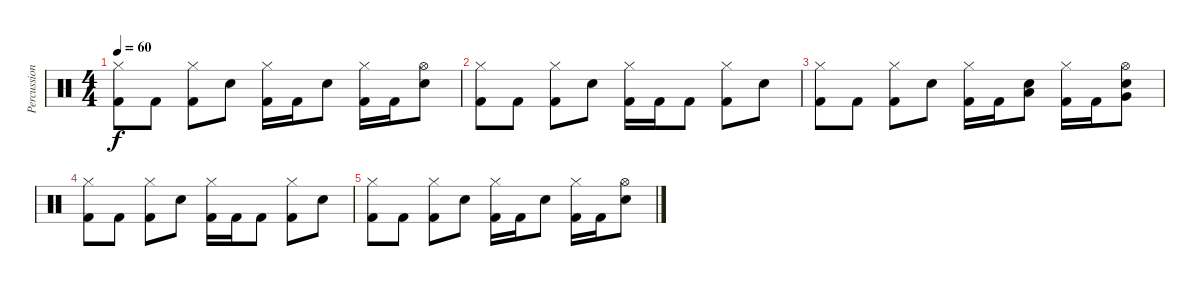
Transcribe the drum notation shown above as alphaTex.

\track ("Percussion" "Percussion") {instrument percussion}
\staff {score}
\articulation defaults
\ts (4 4)
\tempo 60
\clef neutral
\ks c
("Hi-Hat (closed)" "Kick (hit) 2").8{dy f} "Kick (hit) 2".8 ("Hi-Hat (closed)" "Kick (hit) 2").8 "Snare (hit) 2".8 ("Hi-Hat (closed)" "Kick (hit) 2").16 "Kick (hit) 2".16 "Snare (hit) 2".8 ("Hi-Hat (closed)" "Kick (hit) 2").16 "Kick (hit) 2".16 ("Hi-Hat (open)" "Snare (hit) 2").8 |
("Hi-Hat (closed)" "Kick (hit) 2").8 "Kick (hit) 2".8 ("Hi-Hat (closed)" "Kick (hit) 2").8 "Snare (hit) 2".8 ("Hi-Hat (closed)" "Kick (hit) 2").16 "Kick (hit) 2".16 "Kick (hit) 2".8 ("Hi-Hat (closed)" "Kick (hit) 2").8 "Snare (hit) 2".8 |
("Hi-Hat (closed)" "Kick (hit) 2").8 "Kick (hit) 2".8 ("Hi-Hat (closed)" "Kick (hit) 2").8 "Snare (hit) 2".8 ("Hi-Hat (closed)" "Kick (hit) 2").16 "Kick (hit) 2".16 ("Low Floor Tom (hit)" "Snare (hit) 2").8 ("Hi-Hat (closed)" "Kick (hit) 2").16 "Kick (hit) 2".16 ("Hi-Hat (open)" "Very Low Tom (hit)" "Snare (hit) 2").8 |
("Hi-Hat (closed)" "Kick (hit) 2").8 "Kick (hit) 2".8 ("Hi-Hat (closed)" "Kick (hit) 2").8 "Snare (hit) 2".8 ("Hi-Hat (closed)" "Kick (hit) 2").16 "Kick (hit) 2".16 "Kick (hit) 2".8 ("Hi-Hat (closed)" "Kick (hit) 2").8 "Snare (hit) 2".8 |
("Hi-Hat (closed)" "Kick (hit) 2").8 "Kick (hit) 2".8 ("Hi-Hat (closed)" "Kick (hit) 2").8 "Snare (hit) 2".8 ("Hi-Hat (closed)" "Kick (hit) 2").16 "Kick (hit) 2".16 "Snare (hit) 2".8 ("Hi-Hat (closed)" "Kick (hit) 2").16 "Kick (hit) 2".16 ("Hi-Hat (open)" "Snare (hit) 2").8
